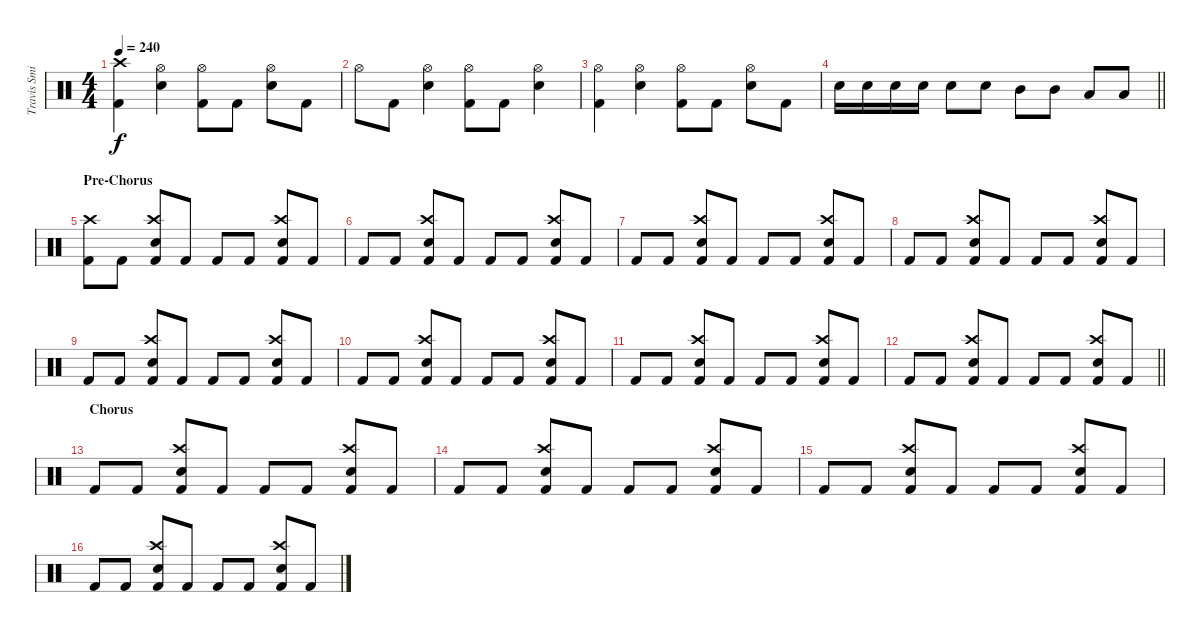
\track ("Travis Smith" "Travis Smi") {instrument percussion}
\staff {score}
\articulation defaults
\ts (4 4)
\tempo 240
\clef neutral
\ks c
("Kick (hit) 2" "Crash high (hit)").4{dy f} ("Snare (hit) 2" "Hi-Hat (open)").4 ("Kick (hit) 2" "Hi-Hat (open)").8 "Kick (hit) 2".8 ("Snare (hit) 2" "Hi-Hat (open)").8 "Kick (hit) 2".8 |
"Hi-Hat (open)".8 "Kick (hit) 2".8 ("Snare (hit) 2" "Hi-Hat (open)").4 ("Kick (hit) 2" "Hi-Hat (open)").8 "Kick (hit) 2".8 ("Snare (hit) 2" "Hi-Hat (open)").4 |
("Kick (hit) 2" "Hi-Hat (open)").4 ("Snare (hit) 2" "Hi-Hat (open)").4 ("Kick (hit) 2" "Hi-Hat (open)").8 "Kick (hit) 2".8 ("Snare (hit) 2" "Hi-Hat (open)").8 "Kick (hit) 2".8 |
\barLineRight lightlight "Snare (hit) 2".16 "Snare (hit) 2".16 "Snare (hit) 2".16 "Snare (hit) 2".16 "Snare (hit) 2".8 "Snare (hit) 2".8 "Mid Tom (hit)".8 "Mid Tom (hit)".8 "Low Tom (hit)".8 "Low Tom (hit)".8
|
\section ("" "Pre-Chorus")
("Kick (hit) 2" "Crash high (hit)").8 "Kick (hit) 2".8 ("Kick (hit) 2" "Snare (hit) 2" "Crash high (hit)").8 "Kick (hit) 2".8 "Kick (hit) 2".8 "Kick (hit) 2".8 ("Kick (hit) 2" "Snare (hit) 2" "Crash high (hit)").8 "Kick (hit) 2".8 |
"Kick (hit) 2".8 "Kick (hit) 2".8 ("Kick (hit) 2" "Snare (hit) 2" "Crash high (hit)").8 "Kick (hit) 2".8 "Kick (hit) 2".8 "Kick (hit) 2".8 ("Kick (hit) 2" "Snare (hit) 2" "Crash high (hit)").8 "Kick (hit) 2".8 |
"Kick (hit) 2".8 "Kick (hit) 2".8 ("Kick (hit) 2" "Snare (hit) 2" "Crash high (hit)").8 "Kick (hit) 2".8 "Kick (hit) 2".8 "Kick (hit) 2".8 ("Kick (hit) 2" "Snare (hit) 2" "Crash high (hit)").8 "Kick (hit) 2".8 |
"Kick (hit) 2".8 "Kick (hit) 2".8 ("Kick (hit) 2" "Snare (hit) 2" "Crash high (hit)").8 "Kick (hit) 2".8 "Kick (hit) 2".8 "Kick (hit) 2".8 ("Kick (hit) 2" "Snare (hit) 2" "Crash high (hit)").8 "Kick (hit) 2".8 |
"Kick (hit) 2".8 "Kick (hit) 2".8 ("Kick (hit) 2" "Snare (hit) 2" "Crash high (hit)").8 "Kick (hit) 2".8 "Kick (hit) 2".8 "Kick (hit) 2".8 ("Kick (hit) 2" "Snare (hit) 2" "Crash high (hit)").8 "Kick (hit) 2".8 |
"Kick (hit) 2".8 "Kick (hit) 2".8 ("Kick (hit) 2" "Snare (hit) 2" "Crash high (hit)").8 "Kick (hit) 2".8 "Kick (hit) 2".8 "Kick (hit) 2".8 ("Kick (hit) 2" "Snare (hit) 2" "Crash high (hit)").8 "Kick (hit) 2".8 |
"Kick (hit) 2".8 "Kick (hit) 2".8 ("Kick (hit) 2" "Snare (hit) 2" "Crash high (hit)").8 "Kick (hit) 2".8 "Kick (hit) 2".8 "Kick (hit) 2".8 ("Kick (hit) 2" "Snare (hit) 2" "Crash high (hit)").8 "Kick (hit) 2".8 |
\barLineRight lightlight "Kick (hit) 2".8 "Kick (hit) 2".8
("Kick (hit) 2" "Snare (hit) 2" "Crash high (hit)").8 "Kick (hit) 2".8 "Kick (hit) 2".8 "Kick (hit) 2".8 ("Kick (hit) 2" "Snare (hit) 2" "Crash high (hit)").8 "Kick (hit) 2".8 |
\section ("" "Chorus")
"Kick (hit) 2".8 "Kick (hit) 2".8 ("Kick (hit) 2" "Snare (hit) 2" "Crash high (hit)").8 "Kick (hit) 2".8 "Kick (hit) 2".8 "Kick (hit) 2".8 ("Kick (hit) 2" "Snare (hit) 2" "Crash high (hit)").8 "Kick (hit) 2".8 |
"Kick (hit) 2".8 "Kick (hit) 2".8 ("Kick (hit) 2" "Snare (hit) 2" "Crash high (hit)").8 "Kick (hit) 2".8 "Kick (hit) 2".8 "Kick (hit) 2".8 ("Kick (hit) 2" "Snare (hit) 2" "Crash high (hit)").8 "Kick (hit) 2".8 |
"Kick (hit) 2".8 "Kick (hit) 2".8 ("Kick (hit) 2" "Snare (hit) 2" "Crash high (hit)").8 "Kick (hit) 2".8 "Kick (hit) 2".8 "Kick (hit) 2".8 ("Kick (hit) 2" "Snare (hit) 2" "Crash high (hit)").8 "Kick (hit) 2".8 |
"Kick (hit) 2".8 "Kick (hit) 2".8 ("Kick (hit) 2" "Snare (hit) 2" "Crash high (hit)").8 "Kick (hit) 2".8 "Kick (hit) 2".8 "Kick (hit) 2".8 ("Kick (hit) 2" "Snare (hit) 2" "Crash high (hit)").8 "Kick (hit) 2".8
